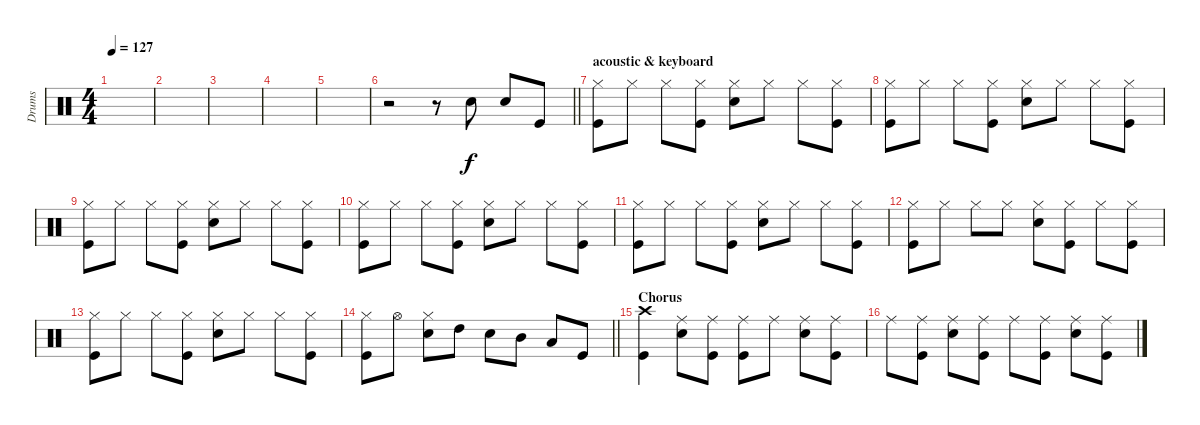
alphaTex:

\track ("Drums" "Drums") {instrument percussion}
\staff {score}
\articulation defaults
\ts (4 4)
\tempo 127
\clef neutral
\ks c
|
|
|
|
|
\barLineRight lightlight
r.2{volume 13} r.8 "Snare (hit) 2".8 "Snare (hit) 2".8 "Kick (hit)".8 |
\section ("" "acoustic & keyboard")
("Hi-Hat (closed)" "Kick (hit)").8 "Hi-Hat (closed)".8 "Hi-Hat (closed)".8 ("Hi-Hat (closed)" "Kick (hit)").8 ("Hi-Hat (closed)" "Snare (hit) 2").8 "Hi-Hat (closed)".8 "Hi-Hat (closed)".8 ("Hi-Hat (closed)" "Kick (hit)").8 |
("Hi-Hat (closed)" "Kick (hit)").8 "Hi-Hat (closed)".8 "Hi-Hat (closed)".8 ("Hi-Hat (closed)" "Kick (hit)").8 ("Hi-Hat (closed)" "Snare (hit) 2").8 "Hi-Hat (closed)".8 "Hi-Hat (closed)".8 ("Hi-Hat (closed)" "Kick (hit)").8 |
("Hi-Hat (closed)" "Kick (hit)").8 "Hi-Hat (closed)".8 "Hi-Hat (closed)".8 ("Hi-Hat (closed)" "Kick (hit)").8 ("Hi-Hat (closed)" "Snare (hit) 2").8 "Hi-Hat (closed)".8 "Hi-Hat (closed)".8 ("Hi-Hat (closed)" "Kick (hit)").8 |
("Hi-Hat (closed)" "Kick (hit)").8 "Hi-Hat (closed)".8 "Hi-Hat (closed)".8 ("Hi-Hat (closed)" "Kick (hit)").8 ("Hi-Hat (closed)" "Snare (hit) 2").8 "Hi-Hat (closed)".8 "Hi-Hat (closed)".8 ("Hi-Hat (closed)" "Kick (hit)").8 |
("Hi-Hat (closed)" "Kick (hit)").8 "Hi-Hat (closed)".8 "Hi-Hat (closed)".8 ("Hi-Hat (closed)" "Kick (hit)").8 ("Hi-Hat (closed)" "Snare (hit) 2").8 "Hi-Hat (closed)".8 "Hi-Hat (closed)".8 ("Hi-Hat (closed)" "Kick (hit)").8 |
("Hi-Hat (closed)" "Kick (hit)").8 "Hi-Hat (closed)".8 "Hi-Hat (closed)".8 "Hi-Hat (closed)".8 ("Hi-Hat (closed)" "Snare (hit) 2").8 ("Hi-Hat (closed)" "Kick (hit)").8 "Hi-Hat (closed)".8 ("Hi-Hat (closed)" "Kick (hit)").8 |
("Hi-Hat (closed)" "Kick (hit)").8 "Hi-Hat (closed)".8 "Hi-Hat (closed)".8 ("Hi-Hat (closed)" "Kick (hit)").8 ("Hi-Hat (closed)" "Snare (hit) 2").8 "Hi-Hat (closed)".8 "Hi-Hat (closed)".8 ("Hi-Hat (closed)" "Kick (hit)").8 |
\barLineRight lightlight
("Hi-Hat (closed)" "Kick (hit)").8 "Hi-Hat (open)".8 ("Hi-Hat (closed)" "Snare (hit) 2").8 "High Tom (hit)".8 "Snare (hit) 2".8 "Mid Tom (hit)".8 "Low Tom (hit)".8 "Kick (hit)".8 |
\section ("" "Chorus")
("Crash high (hit)" "Kick (hit)").4 ("Snare (hit) 2" "Ride (middle)").8 ("Kick (hit)" "Ride (middle)").8 ("Kick (hit)" "Ride (middle)").8 "Ride (middle)".8 ("Snare (hit) 2" "Ride (middle)").8 ("Kick (hit)" "Ride (middle)").8 |
"Ride (middle)".8 ("Ride (middle)" "Kick (hit)").8 ("Ride (middle)" "Snare (hit) 2").8 ("Ride (middle)" "Kick (hit)").8 "Ride (middle)".8 ("Ride (middle)" "Kick (hit)").8 ("Ride (middle)" "Snare (hit) 2").8 ("Ride (middle)" "Kick (hit)").8
